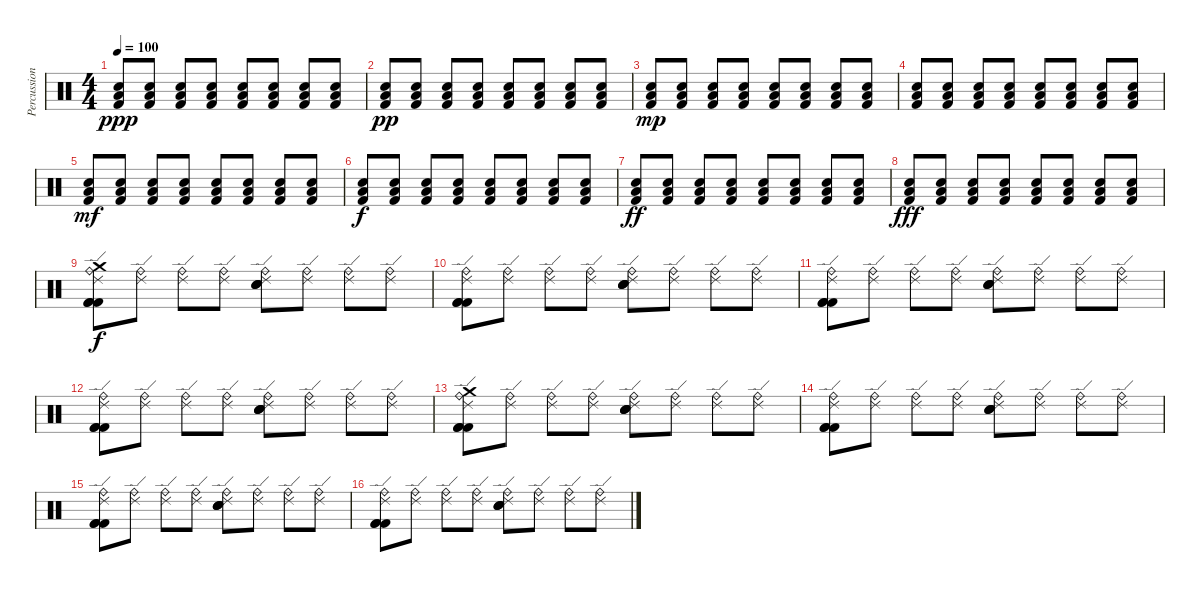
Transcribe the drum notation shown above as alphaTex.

\track ("Percussioni" "Percussion") {instrument percussion}
\staff {score}
\articulation defaults
\ts (4 4)
\tempo 100
\clef neutral
\ks c
("Kick (hit) 2" "Snare (hit) 2" "Low Tom (hit)").8{dy ppp} ("Kick (hit) 2" "Snare (hit) 2" "Low Tom (hit)").8 ("Kick (hit) 2" "Snare (hit) 2" "Low Tom (hit)").8 ("Kick (hit) 2" "Snare (hit) 2" "Low Tom (hit)").8 ("Kick (hit) 2" "Snare (hit) 2" "Low Tom (hit)").8 ("Kick (hit) 2" "Snare (hit) 2" "Low Tom (hit)").8 ("Kick (hit) 2" "Snare (hit) 2" "Low Tom (hit)").8 ("Kick (hit) 2" "Snare (hit) 2" "Low Tom (hit)").8 |
("Kick (hit) 2" "Snare (hit) 2" "Low Tom (hit)").8{dy pp} ("Kick (hit) 2" "Snare (hit) 2" "Low Tom (hit)").8 ("Kick (hit) 2" "Snare (hit) 2" "Low Tom (hit)").8 ("Kick (hit) 2" "Snare (hit) 2" "Low Tom (hit)").8 ("Kick (hit) 2" "Snare (hit) 2" "Low Tom (hit)").8 ("Kick (hit) 2" "Snare (hit) 2" "Low Tom (hit)").8 ("Kick (hit) 2" "Snare (hit) 2" "Low Tom (hit)").8 ("Kick (hit) 2" "Snare (hit) 2" "Low Tom (hit)").8 |
("Kick (hit) 2" "Snare (hit) 2" "Low Tom (hit)").8{dy mp} ("Kick (hit) 2" "Snare (hit) 2" "Low Tom (hit)").8 ("Kick (hit) 2" "Snare (hit) 2" "Low Tom (hit)").8 ("Kick (hit) 2" "Snare (hit) 2" "Low Tom (hit)").8 ("Kick (hit) 2" "Snare (hit) 2" "Low Tom (hit)").8 ("Kick (hit) 2" "Snare (hit) 2" "Low Tom (hit)").8 ("Kick (hit) 2" "Snare (hit) 2" "Low Tom (hit)").8 ("Kick (hit) 2" "Snare (hit) 2" "Low Tom (hit)").8 |
("Kick (hit) 2" "Snare (hit) 2" "Low Tom (hit)").8 ("Kick (hit) 2" "Snare (hit) 2" "Low Tom (hit)").8 ("Kick (hit) 2" "Snare (hit) 2" "Low Tom (hit)").8 ("Kick (hit) 2" "Snare (hit) 2" "Low Tom (hit)").8 ("Kick (hit) 2" "Snare (hit) 2" "Low Tom (hit)").8 ("Kick (hit) 2" "Snare (hit) 2" "Low Tom (hit)").8 ("Kick (hit) 2" "Snare (hit) 2" "Low Tom (hit)").8 ("Kick (hit) 2" "Snare (hit) 2" "Low Tom (hit)").8 |
("Kick (hit) 2" "Snare (hit) 2" "Low Tom (hit)").8{dy mf} ("Kick (hit) 2" "Snare (hit) 2" "Low Tom (hit)").8 ("Kick (hit) 2" "Snare (hit) 2" "Low Tom (hit)").8 ("Kick (hit) 2" "Snare (hit) 2" "Low Tom (hit)").8 ("Kick (hit) 2" "Snare (hit) 2" "Low Tom (hit)").8 ("Kick (hit) 2" "Snare (hit) 2" "Low Tom (hit)").8 ("Kick (hit) 2" "Snare (hit) 2" "Low Tom (hit)").8 ("Kick (hit) 2" "Snare (hit) 2" "Low Tom (hit)").8 |
("Kick (hit) 2" "Snare (hit) 2" "Low Tom (hit)").8{dy f} ("Kick (hit) 2" "Snare (hit) 2" "Low Tom (hit)").8 ("Kick (hit) 2" "Snare (hit) 2" "Low Tom (hit)").8 ("Kick (hit) 2" "Snare (hit) 2" "Low Tom (hit)").8 ("Kick (hit) 2" "Snare (hit) 2" "Low Tom (hit)").8 ("Kick (hit) 2" "Snare (hit) 2" "Low Tom (hit)").8 ("Kick (hit) 2" "Snare (hit) 2" "Low Tom (hit)").8 ("Kick (hit) 2" "Snare (hit) 2" "Low Tom (hit)").8 |
("Kick (hit) 2" "Snare (hit) 2" "Low Tom (hit)").8{dy ff} ("Kick (hit) 2" "Snare (hit) 2" "Low Tom (hit)").8 ("Kick (hit) 2" "Snare (hit) 2" "Low Tom (hit)").8 ("Kick (hit) 2" "Snare (hit) 2" "Low Tom (hit)").8 ("Kick (hit) 2" "Snare (hit) 2" "Low Tom (hit)").8 ("Kick (hit) 2" "Snare (hit) 2" "Low Tom (hit)").8 ("Kick (hit) 2" "Snare (hit) 2" "Low Tom (hit)").8 ("Kick (hit) 2" "Snare (hit) 2" "Low Tom (hit)").8 |
("Kick (hit) 2" "Snare (hit) 2" "Low Tom (hit)").8{dy fff} ("Kick (hit) 2" "Snare (hit) 2" "Low Tom (hit)").8 ("Kick (hit) 2" "Snare (hit) 2" "Low Tom (hit)").8 ("Kick (hit) 2" "Snare (hit) 2" "Low Tom (hit)").8 ("Kick (hit) 2" "Snare (hit) 2" "Low Tom (hit)").8 ("Kick (hit) 2" "Snare (hit) 2" "Low Tom (hit)").8 ("Kick (hit) 2" "Snare (hit) 2" "Low Tom (hit)").8 ("Kick (hit) 2" "Snare (hit) 2" "Low Tom (hit)").8 |
("Ride (edge) 2" "Ride (bell)" "Kick (hit) 2" "Kick (hit) 2" "Kick (hit) 2" "Crash medium (hit)").8{dy f} ("Ride (edge) 2" "Ride (bell)").8 ("Ride (edge) 2" "Ride (bell)").8 ("Ride (edge) 2" "Ride (bell)").8 ("Ride (edge) 2" "Ride (bell)" "Snare (hit) 2" "Snare (hit) 2" "Snare (hit) 2").8 ("Ride (edge) 2" "Ride (bell)").8 ("Ride (edge) 2" "Ride (bell)").8 ("Ride (edge) 2" "Ride (bell)").8 |
("Ride (edge) 2" "Ride (bell)" "Kick (hit) 2" "Kick (hit) 2" "Kick (hit) 2").8 ("Ride (edge) 2" "Ride (bell)").8 ("Ride (edge) 2" "Ride (bell)").8 ("Ride (edge) 2" "Ride (bell)").8 ("Ride (edge) 2" "Ride (bell)" "Snare (hit) 2" "Snare (hit) 2" "Snare (hit) 2").8 ("Ride (edge) 2" "Ride (bell)").8 ("Ride (edge) 2" "Ride (bell)").8 ("Ride (edge) 2" "Ride (bell)").8 |
("Ride (edge) 2" "Ride (bell)" "Kick (hit) 2" "Kick (hit) 2" "Kick (hit) 2").8 ("Ride (edge) 2" "Ride (bell)").8 ("Ride (edge) 2" "Ride (bell)").8 ("Ride (edge) 2" "Ride (bell)").8 ("Ride (edge) 2" "Ride (bell)" "Snare (hit) 2" "Snare (hit) 2" "Snare (hit) 2").8 ("Ride (edge) 2" "Ride (bell)").8 ("Ride (edge) 2" "Ride (bell)").8 ("Ride (edge) 2" "Ride (bell)").8 |
("Ride (edge) 2" "Ride (bell)" "Kick (hit) 2" "Kick (hit) 2" "Kick (hit) 2").8 ("Ride (edge) 2" "Ride (bell)").8 ("Ride (edge) 2" "Ride (bell)").8 ("Ride (edge) 2" "Ride (bell)").8 ("Ride (edge) 2" "Ride (bell)" "Snare (hit) 2" "Snare (hit) 2" "Snare (hit) 2").8 ("Ride (edge) 2" "Ride (bell)").8 ("Ride (edge) 2" "Ride (bell)").8 ("Ride (edge) 2" "Ride (bell)").8 |
("Ride (edge) 2" "Ride (bell)" "Kick (hit) 2" "Kick (hit) 2" "Kick (hit) 2" "Crash medium (hit)").8 ("Ride (edge) 2" "Ride (bell)").8 ("Ride (edge) 2" "Ride (bell)").8 ("Ride (edge) 2" "Ride (bell)").8 ("Ride (edge) 2" "Ride (bell)" "Snare (hit) 2" "Snare (hit) 2" "Snare (hit) 2").8 ("Ride (edge) 2" "Ride (bell)").8 ("Ride (edge) 2" "Ride (bell)").8 ("Ride (edge) 2" "Ride (bell)").8 |
("Ride (edge) 2" "Ride (bell)" "Kick (hit) 2" "Kick (hit) 2" "Kick (hit) 2").8 ("Ride (edge) 2" "Ride (bell)").8 ("Ride (edge) 2" "Ride (bell)").8 ("Ride (edge) 2" "Ride (bell)").8 ("Ride (edge) 2" "Ride (bell)" "Snare (hit) 2" "Snare (hit) 2" "Snare (hit) 2").8 ("Ride (edge) 2" "Ride (bell)").8 ("Ride (edge) 2" "Ride (bell)").8 ("Ride (edge) 2" "Ride (bell)").8 |
("Ride (edge) 2" "Ride (bell)" "Kick (hit) 2" "Kick (hit) 2" "Kick (hit) 2").8 ("Ride (edge) 2" "Ride (bell)").8 ("Ride (edge) 2" "Ride (bell)").8 ("Ride (edge) 2" "Ride (bell)").8 ("Ride (edge) 2" "Ride (bell)" "Snare (hit) 2" "Snare (hit) 2" "Snare (hit) 2").8 ("Ride (edge) 2" "Ride (bell)").8 ("Ride (edge) 2" "Ride (bell)").8 ("Ride (edge) 2" "Ride (bell)").8 |
("Ride (edge) 2" "Ride (bell)" "Kick (hit) 2" "Kick (hit) 2" "Kick (hit) 2").8 ("Ride (edge) 2" "Ride (bell)").8 ("Ride (edge) 2" "Ride (bell)").8 ("Ride (edge) 2" "Ride (bell)").8 ("Ride (edge) 2" "Ride (bell)" "Snare (hit) 2" "Snare (hit) 2" "Snare (hit) 2").8 ("Ride (edge) 2" "Ride (bell)").8 ("Ride (edge) 2" "Ride (bell)").8 ("Ride (edge) 2" "Ride (bell)").8
